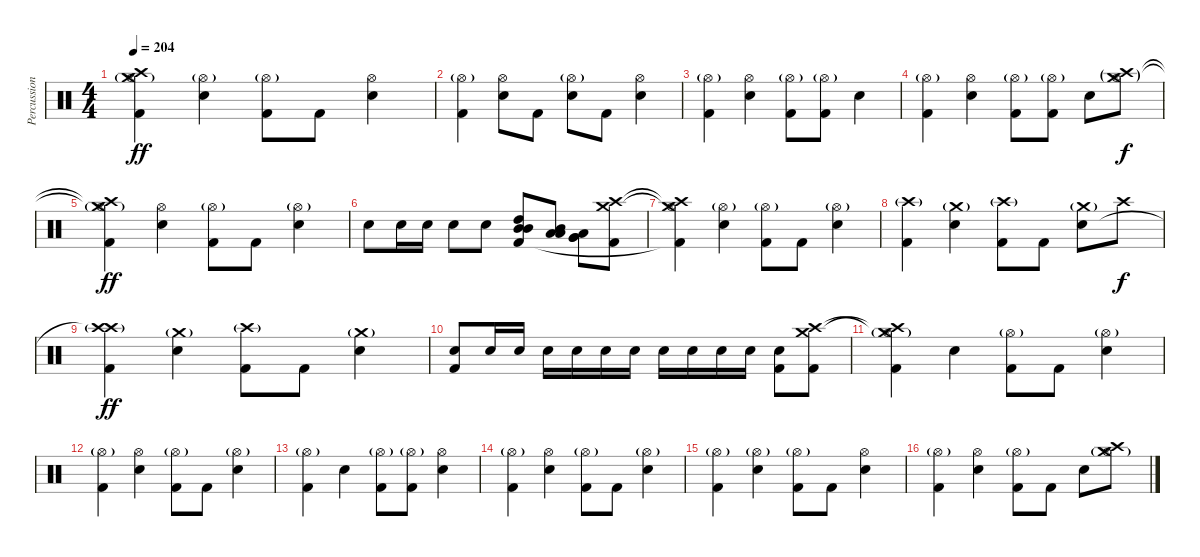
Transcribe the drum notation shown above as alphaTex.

\track ("Percussion" "Percussion") {instrument percussion}
\staff {score}
\articulation defaults
\ts (4 4)
\tempo 204
\clef neutral
\ks c
("Crash medium (hit)"{t} "Crash high (hit)"{t} "Hi-Hat (open)"{g} "Kick (hit) 2").4{dy ff} ("Electric Snare (hit)" "Hi-Hat (open)"{g}).4 ("Hi-Hat (open)"{g} "Kick (hit) 2").8 "Kick (hit) 2".8 ("Electric Snare (hit)" "Hi-Hat (open)").4 |
("Hi-Hat (open)"{g} "Kick (hit) 2").4 ("Electric Snare (hit)" "Hi-Hat (open)").8 "Kick (hit) 2".8 ("Electric Snare (hit)" "Hi-Hat (open)"{g}).8 "Kick (hit) 2".8 ("Electric Snare (hit)" "Hi-Hat (open)").4 |
("Hi-Hat (open)"{g} "Kick (hit) 2").4 ("Electric Snare (hit)" "Hi-Hat (open)").4 ("Hi-Hat (open)"{g} "Kick (hit) 2").8 ("Hi-Hat (open)"{g} "Kick (hit) 2").8 "Electric Snare (hit)".4 |
("Hi-Hat (open)"{g} "Kick (hit) 2").4 ("Electric Snare (hit)" "Hi-Hat (open)").4 ("Hi-Hat (open)"{g} "Kick (hit) 2").8 ("Hi-Hat (open)"{g} "Kick (hit) 2").8 "Electric Snare (hit)".8 ("Crash medium (hit)"{g} "Crash high (hit)"{g} "Hi-Hat (open)"{g}).8{dy f} |
("Crash medium (hit)"{t} "Crash high (hit)"{t} "Hi-Hat (open)"{g} "Kick (hit) 2").4{dy ff} ("Electric Snare (hit)" "Hi-Hat (open)").4 ("Hi-Hat (open)"{g} "Kick (hit) 2").8 "Kick (hit) 2".8 ("Electric Snare (hit)" "Hi-Hat (open)"{g}).4 |
"Electric Snare (hit)".8 "Electric Snare (hit)".16 "Electric Snare (hit)".16 "Electric Snare (hit)".8 "Electric Snare (hit)".8 ("High Tom (hit)" "Mid Tom (hit)" "Mid Tom (hit)" "Kick (hit) 2").8 ("Mid Tom (hit)" "Low Tom (hit)" "Low Tom (hit)").8 ("Low Tom (hit)" "Very Low Tom (hit)" "Very Low Tom (hit)").8 ("Crash medium (hit)" "Crash high (hit)" "Kick (hit) 2").8 |
("Crash medium (hit)"{t} "Crash high (hit)"{t} "Hi-Hat (open)" "Kick (hit) 2"{t}).4 ("Electric Snare (hit)" "Hi-Hat (open)"{g}).4 ("Hi-Hat (open)"{g} "Kick (hit) 2").8 "Kick (hit) 2".8 ("Electric Snare (hit)" "Hi-Hat (open)"{g}).4 |
("Crash high (hit)"{g} "Kick (hit) 2").4 ("Crash medium (hit)"{g} "Electric Snare (hit)").4 ("Crash high (hit)"{g} "Kick (hit) 2").8 "Kick (hit) 2".8 ("Crash medium (hit)"{g} "Electric Snare (hit)").8 "Crash high (hit)".8{dy f} |
("Crash high (hit)"{g} "Crash high (hit)"{t} "Kick (hit) 2").4{dy ff} ("Crash medium (hit)"{g} "Electric Snare (hit)").4 ("Crash high (hit)"{g} "Kick (hit) 2").8 "Kick (hit) 2".8 ("Crash medium (hit)"{g} "Electric Snare (hit)").4 |
("Electric Snare (hit)" "Kick (hit) 2").8 "Electric Snare (hit)".16 "Electric Snare (hit)".16 "Electric Snare (hit)".16 "Electric Snare (hit)".16 "Electric Snare (hit)".16 "Electric Snare (hit)".16 "Electric Snare (hit)".16 "Electric Snare (hit)".16 "Electric Snare (hit)".16 "Electric Snare (hit)".16 ("Electric Snare (hit)" "Kick (hit) 2").8 ("Crash high (hit)" "Crash medium (hit)" "Kick (hit) 2").8 |
("Crash medium (hit)"{t} "Crash high (hit)"{t} "Hi-Hat (open)"{g} "Kick (hit) 2").4 "Electric Snare (hit)".4 ("Hi-Hat (open)"{g} "Kick (hit) 2").8 "Kick (hit) 2".8 ("Electric Snare (hit)" "Hi-Hat (open)"{g}).4 |
("Hi-Hat (open)"{g} "Kick (hit) 2").4 ("Electric Snare (hit)" "Hi-Hat (open)").4 ("Hi-Hat (open)"{g} "Kick (hit) 2").8 "Kick (hit) 2".8 ("Electric Snare (hit)" "Hi-Hat (open)"{g}).4 |
("Hi-Hat (open)"{g} "Kick (hit) 2").4 "Electric Snare (hit)".4 ("Hi-Hat (open)"{g} "Kick (hit) 2").8 ("Hi-Hat (open)"{g} "Kick (hit) 2").8 ("Electric Snare (hit)" "Hi-Hat (open)").4 |
("Hi-Hat (open)"{g} "Kick (hit) 2").4 ("Electric Snare (hit)" "Hi-Hat (open)").4 ("Hi-Hat (open)"{g} "Kick (hit) 2").8 "Kick (hit) 2".8 ("Electric Snare (hit)" "Hi-Hat (open)"{g}).4 |
("Hi-Hat (open)"{g} "Kick (hit) 2").4 ("Electric Snare (hit)" "Hi-Hat (open)"{g}).4 ("Hi-Hat (open)"{g} "Kick (hit) 2").8 "Kick (hit) 2".8 ("Electric Snare (hit)" "Hi-Hat (open)").4 |
("Hi-Hat (open)"{g} "Kick (hit) 2").4 ("Electric Snare (hit)" "Hi-Hat (open)").4 ("Hi-Hat (open)"{g} "Kick (hit) 2").8 "Kick (hit) 2".8 "Electric Snare (hit)".8 ("Crash medium (hit)" "Crash high (hit)" "Hi-Hat (open)"{g}).8
